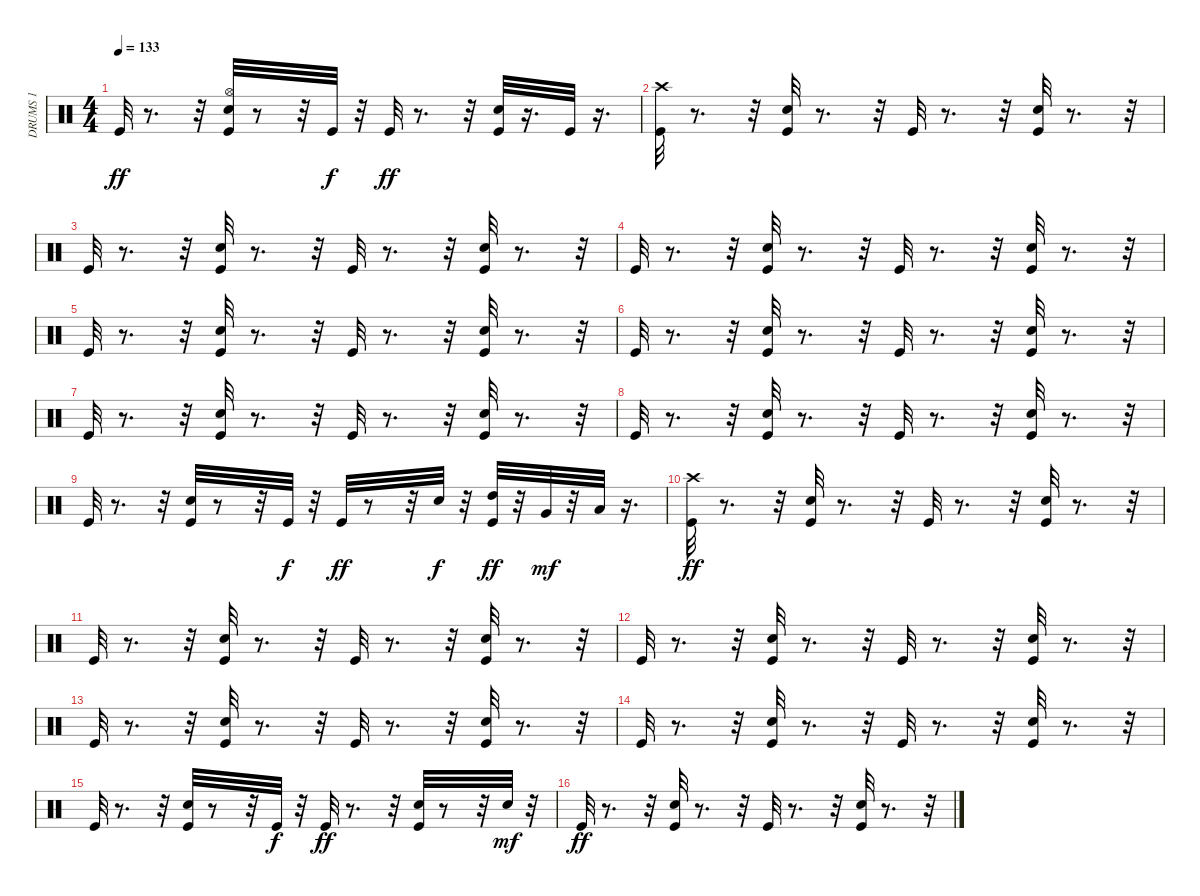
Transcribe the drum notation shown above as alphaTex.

\track ("DRUMS 1                             " "DRUMS 1   ") {instrument percussion}
\staff {score}
\articulation defaults
\ts (4 4)
\tempo 133
\clef neutral
\ks c "Kick (hit)".32{dy ff}
r.8{d} r.32 ("Hi-Hat (open)" "Electric Snare (hit)" "Kick (hit)").32 r.8 r.32 "Kick (hit)".32{dy f} r.32 "Kick (hit)".32{dy ff} r.8{d} r.32 ("Electric Snare (hit)" "Kick (hit)").32 r.16{d} "Kick (hit)".32 r.16{d} |
("Crash high (hit)" "Kick (hit)").32 r.8{d} r.32 ("Electric Snare (hit)" "Kick (hit)").32 r.8{d} r.32 "Kick (hit)".32 r.8{d} r.32 ("Electric Snare (hit)" "Kick (hit)").32 r.8{d} r.32 |
"Kick (hit)".32 r.8{d} r.32 ("Electric Snare (hit)" "Kick (hit)").32 r.8{d} r.32 "Kick (hit)".32 r.8{d} r.32 ("Electric Snare (hit)" "Kick (hit)").32 r.8{d} r.32 |
"Kick (hit)".32 r.8{d} r.32 ("Electric Snare (hit)" "Kick (hit)").32 r.8{d} r.32 "Kick (hit)".32 r.8{d} r.32 ("Electric Snare (hit)" "Kick (hit)").32 r.8{d} r.32 |
"Kick (hit)".32 r.8{d} r.32 ("Electric Snare (hit)" "Kick (hit)").32 r.8{d} r.32 "Kick (hit)".32 r.8{d} r.32 ("Electric Snare (hit)" "Kick (hit)").32 r.8{d} r.32 |
"Kick (hit)".32 r.8{d} r.32 ("Electric Snare (hit)" "Kick (hit)").32 r.8{d} r.32 "Kick (hit)".32 r.8{d} r.32 ("Electric Snare (hit)" "Kick (hit)").32 r.8{d} r.32 |
"Kick (hit)".32 r.8{d} r.32 ("Electric Snare (hit)" "Kick (hit)").32 r.8{d} r.32 "Kick (hit)".32 r.8{d} r.32 ("Electric Snare (hit)" "Kick (hit)").32 r.8{d} r.32 |
"Kick (hit)".32 r.8{d} r.32 ("Electric Snare (hit)" "Kick (hit)").32 r.8{d} r.32 "Kick (hit)".32 r.8{d} r.32 ("Electric Snare (hit)" "Kick (hit)").32 r.8{d} r.32 |
"Kick (hit)".32 r.8{d} r.32 ("Electric Snare (hit)" "Kick (hit)").32 r.8 r.32 "Kick (hit)".32{dy f} r.32 "Kick (hit)".32{dy ff} r.8 r.32 "Electric Snare (hit)".32{dy f} r.32 ("High Tom (hit)" "Kick (hit)").32{dy ff} r.32 "Very Low Tom (hit)".32{dy mf} r.32 "Low Floor Tom (hit)".32 r.16{d} |
("Crash high (hit)" "Kick (hit)").32{dy ff} r.8{d} r.32 ("Electric Snare (hit)" "Kick (hit)").32 r.8{d} r.32 "Kick (hit)".32 r.8{d} r.32 ("Electric Snare (hit)" "Kick (hit)").32 r.8{d} r.32 |
"Kick (hit)".32 r.8{d} r.32 ("Electric Snare (hit)" "Kick (hit)").32 r.8{d} r.32 "Kick (hit)".32 r.8{d} r.32 ("Electric Snare (hit)" "Kick (hit)").32 r.8{d} r.32 |
"Kick (hit)".32 r.8{d} r.32 ("Electric Snare (hit)" "Kick (hit)").32 r.8{d} r.32 "Kick (hit)".32 r.8{d} r.32 ("Electric Snare (hit)" "Kick (hit)").32 r.8{d} r.32 |
"Kick (hit)".32 r.8{d} r.32 ("Electric Snare (hit)" "Kick (hit)").32 r.8{d} r.32 "Kick (hit)".32 r.8{d} r.32 ("Electric Snare (hit)" "Kick (hit)").32 r.8{d} r.32 |
"Kick (hit)".32 r.8{d} r.32 ("Electric Snare (hit)" "Kick (hit)").32 r.8{d} r.32 "Kick (hit)".32 r.8{d} r.32 ("Electric Snare (hit)" "Kick (hit)").32 r.8{d} r.32 |
"Kick (hit)".32 r.8{d} r.32 ("Electric Snare (hit)" "Kick (hit)").32 r.8 r.32 "Kick (hit)".32{dy f} r.32 "Kick (hit)".32{dy ff} r.8{d} r.32 ("Electric Snare (hit)" "Kick (hit)").32 r.8 r.32 "Electric Snare (hit)".32{dy mf} r.32 |
"Kick (hit)".32{dy ff} r.8{d} r.32 ("Electric Snare (hit)" "Kick (hit)").32 r.8{d} r.32 "Kick (hit)".32 r.8{d} r.32 ("Electric Snare (hit)" "Kick (hit)").32 r.8{d} r.32
